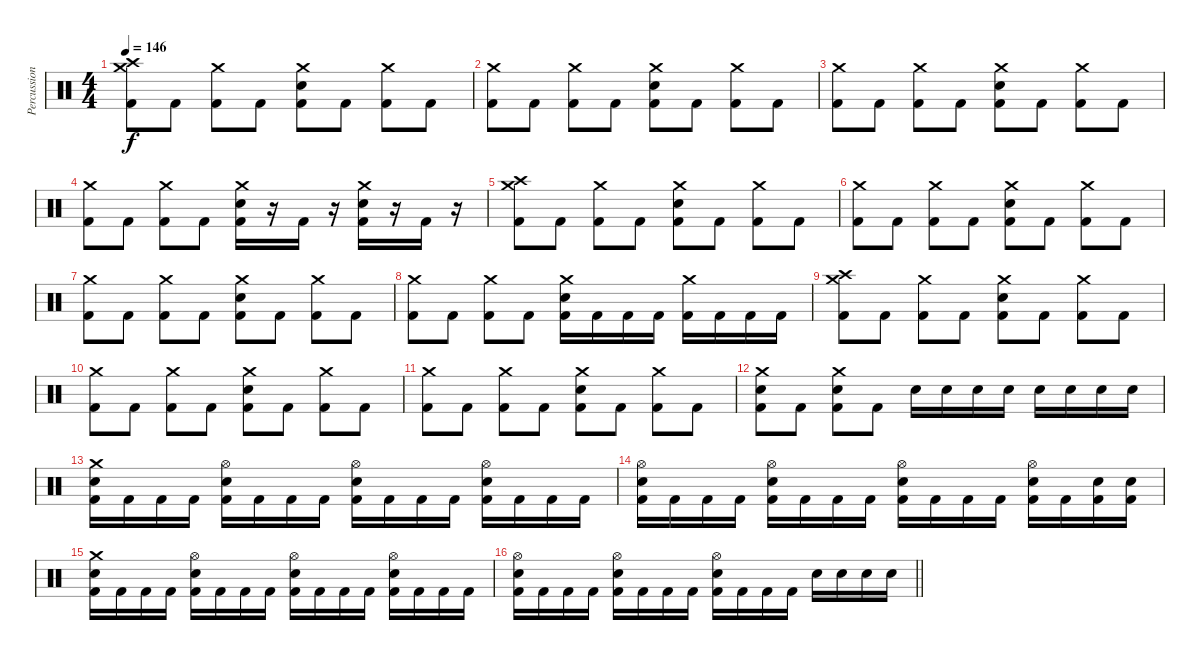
\track ("Percussion" "Percussion") {instrument percussion}
\staff {score}
\articulation defaults
\ts (4 4)
\tempo 146
\clef neutral
\ks c
("Crash high (hit)" "Crash medium (hit)" "Kick (hit) 2").8{dy f} "Kick (hit) 2".8 ("Crash medium (hit)" "Kick (hit) 2").8 "Kick (hit) 2".8 ("Crash medium (hit)" "Snare (hit) 2" "Kick (hit) 2").8 "Kick (hit) 2".8 ("Crash medium (hit)" "Kick (hit) 2").8 "Kick (hit) 2".8 |
("Crash medium (hit)" "Kick (hit) 2").8 "Kick (hit) 2".8 ("Crash medium (hit)" "Kick (hit) 2").8 "Kick (hit) 2".8 ("Crash medium (hit)" "Snare (hit) 2" "Kick (hit) 2").8 "Kick (hit) 2".8 ("Crash medium (hit)" "Kick (hit) 2").8 "Kick (hit) 2".8 |
("Crash medium (hit)" "Kick (hit) 2").8 "Kick (hit) 2".8 ("Crash medium (hit)" "Kick (hit) 2").8 "Kick (hit) 2".8 ("Crash medium (hit)" "Snare (hit) 2" "Kick (hit) 2").8 "Kick (hit) 2".8 ("Crash medium (hit)" "Kick (hit) 2").8 "Kick (hit) 2".8 |
("Crash medium (hit)" "Kick (hit) 2").8 "Kick (hit) 2".8 ("Crash medium (hit)" "Kick (hit) 2").8 "Kick (hit) 2".8 ("Crash medium (hit)" "Snare (hit) 2" "Kick (hit) 2").16 r.16 "Kick (hit) 2".16 r.16 ("Crash medium (hit)" "Snare (hit) 2" "Kick (hit) 2").16 r.16 "Kick (hit) 2".16 r.16 |
("Crash high (hit)" "Crash medium (hit)" "Kick (hit) 2").8 "Kick (hit) 2".8 ("Crash medium (hit)" "Kick (hit) 2").8 "Kick (hit) 2".8 ("Crash medium (hit)" "Snare (hit) 2" "Kick (hit) 2").8 "Kick (hit) 2".8 ("Crash medium (hit)" "Kick (hit) 2").8 "Kick (hit) 2".8 |
("Crash medium (hit)" "Kick (hit) 2").8 "Kick (hit) 2".8 ("Crash medium (hit)" "Kick (hit) 2").8 "Kick (hit) 2".8 ("Crash medium (hit)" "Snare (hit) 2" "Kick (hit) 2").8 "Kick (hit) 2".8 ("Crash medium (hit)" "Kick (hit) 2").8 "Kick (hit) 2".8 |
("Crash medium (hit)" "Kick (hit) 2").8 "Kick (hit) 2".8 ("Crash medium (hit)" "Kick (hit) 2").8 "Kick (hit) 2".8 ("Crash medium (hit)" "Snare (hit) 2" "Kick (hit) 2").8 "Kick (hit) 2".8 ("Crash medium (hit)" "Kick (hit) 2").8 "Kick (hit) 2".8 |
("Crash medium (hit)" "Kick (hit) 2").8 "Kick (hit) 2".8 ("Crash medium (hit)" "Kick (hit) 2").8 "Kick (hit) 2".8 ("Crash medium (hit)" "Snare (hit) 2" "Kick (hit) 2").16 "Kick (hit) 2".16 "Kick (hit) 2".16 "Kick (hit) 2".16 ("Crash medium (hit)" "Kick (hit) 2").16 "Kick (hit) 2".16 "Kick (hit) 2".16 "Kick (hit) 2".16 |
("Crash high (hit)" "Crash medium (hit)" "Kick (hit) 2").8 "Kick (hit) 2".8 ("Crash medium (hit)" "Kick (hit) 2").8 "Kick (hit) 2".8 ("Crash medium (hit)" "Snare (hit) 2" "Kick (hit) 2").8 "Kick (hit) 2".8 ("Crash medium (hit)" "Kick (hit) 2").8 "Kick (hit) 2".8 |
("Crash medium (hit)" "Kick (hit) 2").8 "Kick (hit) 2".8 ("Crash medium (hit)" "Kick (hit) 2").8 "Kick (hit) 2".8 ("Crash medium (hit)" "Snare (hit) 2" "Kick (hit) 2").8 "Kick (hit) 2".8 ("Crash medium (hit)" "Kick (hit) 2").8 "Kick (hit) 2".8 |
("Crash medium (hit)" "Kick (hit) 2").8 "Kick (hit) 2".8 ("Crash medium (hit)" "Kick (hit) 2").8 "Kick (hit) 2".8 ("Crash medium (hit)" "Snare (hit) 2" "Kick (hit) 2").8 "Kick (hit) 2".8 ("Crash medium (hit)" "Kick (hit) 2").8 "Kick (hit) 2".8 |
("Crash medium (hit)" "Snare (hit) 2" "Kick (hit) 2").8 "Kick (hit) 2".8 ("Crash medium (hit)" "Snare (hit) 2" "Kick (hit) 2").8 "Kick (hit) 2".8 "Snare (hit) 2".16 "Snare (hit) 2".16 "Snare (hit) 2".16 "Snare (hit) 2".16 "Snare (hit) 2".16 "Snare (hit) 2".16 "Snare (hit) 2".16 "Snare (hit) 2".16 |
("Crash medium (hit)" "Snare (hit) 2" "Kick (hit) 2").16 "Kick (hit) 2".16 "Kick (hit) 2".16 "Kick (hit) 2".16 ("Hi-Hat (open)" "Snare (hit) 2" "Kick (hit) 2").16 "Kick (hit) 2".16 "Kick (hit) 2".16 "Kick (hit) 2".16 ("Hi-Hat (open)" "Snare (hit) 2" "Kick (hit) 2").16 "Kick (hit) 2".16 "Kick (hit) 2".16 "Kick (hit) 2".16 ("Hi-Hat (open)" "Snare (hit) 2" "Kick (hit) 2").16 "Kick (hit) 2".16 "Kick (hit) 2".16 "Kick (hit) 2".16 |
("Hi-Hat (open)" "Snare (hit) 2" "Kick (hit) 2").16 "Kick (hit) 2".16 "Kick (hit) 2".16 "Kick (hit) 2".16 ("Hi-Hat (open)" "Snare (hit) 2" "Kick (hit) 2").16 "Kick (hit) 2".16 "Kick (hit) 2".16 "Kick (hit) 2".16 ("Hi-Hat (open)" "Snare (hit) 2" "Kick (hit) 2").16 "Kick (hit) 2".16 "Kick (hit) 2".16 "Kick (hit) 2".16 ("Hi-Hat (open)" "Snare (hit) 2" "Kick (hit) 2").16 "Kick (hit) 2".16 ("Snare (hit) 2" "Kick (hit) 2").16 ("Snare (hit) 2" "Kick (hit) 2").16 |
("Crash medium (hit)" "Snare (hit) 2" "Kick (hit) 2").16 "Kick (hit) 2".16 "Kick (hit) 2".16 "Kick (hit) 2".16 ("Hi-Hat (open)" "Snare (hit) 2" "Kick (hit) 2").16 "Kick (hit) 2".16 "Kick (hit) 2".16 "Kick (hit) 2".16 ("Hi-Hat (open)" "Snare (hit) 2" "Kick (hit) 2").16 "Kick (hit) 2".16 "Kick (hit) 2".16 "Kick (hit) 2".16 ("Hi-Hat (open)" "Snare (hit) 2" "Kick (hit) 2").16 "Kick (hit) 2".16 "Kick (hit) 2".16 "Kick (hit) 2".16 |
\barLineRight lightlight
("Hi-Hat (open)" "Snare (hit) 2" "Kick (hit) 2").16 "Kick (hit) 2".16 "Kick (hit) 2".16 "Kick (hit) 2".16 ("Hi-Hat (open)" "Snare (hit) 2" "Kick (hit) 2").16 "Kick (hit) 2".16 "Kick (hit) 2".16 "Kick (hit) 2".16 ("Hi-Hat (open)" "Snare (hit) 2" "Kick (hit) 2").16 "Kick (hit) 2".16 "Kick (hit) 2".16 "Kick (hit) 2".16 "Snare (hit) 2".16 "Snare (hit) 2".16 "Snare (hit) 2".16 "Snare (hit) 2".16
